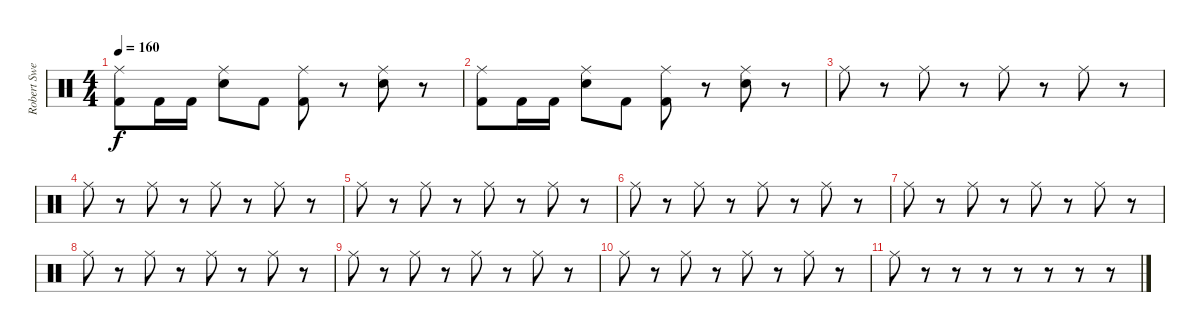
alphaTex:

\track ("Robert Sweet" "Robert Swe") {instrument percussion}
\staff {score}
\articulation defaults
\ts (4 4)
\tempo 160
\clef neutral
\ks c
("Ride (middle)" "Kick (hit) 2").8{dy f} "Kick (hit) 2".16 "Kick (hit) 2".16 ("Ride (middle)" "Electric Snare (hit)").8 "Kick (hit) 2".8 ("Ride (middle)" "Kick (hit) 2").8 r.8 ("Ride (middle)" "Electric Snare (hit)").8 r.8 |
("Ride (middle)" "Kick (hit) 2").8 "Kick (hit) 2".16 "Kick (hit) 2".16 ("Ride (middle)" "Electric Snare (hit)").8 "Kick (hit) 2".8 ("Ride (middle)" "Kick (hit) 2").8 r.8 ("Ride (middle)" "Electric Snare (hit)").8 r.8 |
"Ride (middle)".8 r.8 "Ride (middle)".8 r.8 "Ride (middle)".8 r.8 "Ride (middle)".8 r.8 |
"Ride (middle)".8 r.8 "Ride (middle)".8 r.8 "Ride (middle)".8 r.8 "Ride (middle)".8 r.8 |
"Ride (middle)".8 r.8 "Ride (middle)".8 r.8 "Ride (middle)".8 r.8 "Ride (middle)".8 r.8 |
"Ride (middle)".8 r.8 "Ride (middle)".8 r.8 "Ride (middle)".8 r.8 "Ride (middle)".8 r.8 |
"Ride (middle)".8 r.8 "Ride (middle)".8 r.8 "Ride (middle)".8 r.8 "Ride (middle)".8 r.8 |
"Ride (middle)".8 r.8 "Ride (middle)".8 r.8 "Ride (middle)".8 r.8 "Ride (middle)".8 r.8 |
"Ride (middle)".8 r.8 "Ride (middle)".8 r.8 "Ride (middle)".8 r.8 "Ride (middle)".8 r.8 |
"Ride (middle)".8 r.8 "Ride (middle)".8 r.8 "Ride (middle)".8 r.8 "Ride (middle)".8 r.8 |
"Ride (middle)".8 r.8 r.8 r.8 r.8 r.8 r.8 r.8
